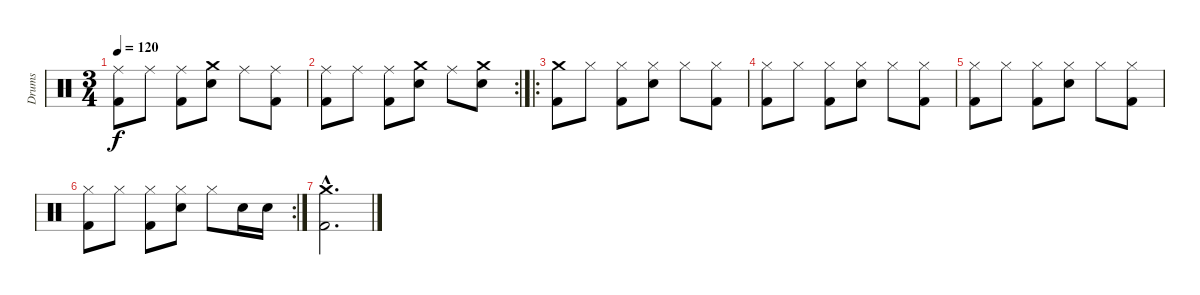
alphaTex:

\track ("Drums" "Drums") {instrument percussion}
\staff {score}
\articulation defaults
\ts (3 4)
\tempo 120
\clef neutral
\ks c
("Ride (middle)" "Kick (hit) 2").8{dy f} "Ride (middle)".8 ("Ride (middle)" "Kick (hit) 2").8 ("Crash medium (hit)" "Snare (hit) 2").8 "Ride (middle)".8 ("Ride (middle)" "Kick (hit) 2").8 |
\rc 2
("Ride (middle)" "Kick (hit) 2").8 "Ride (middle)".8 ("Ride (middle)" "Kick (hit) 2").8 ("Crash medium (hit)" "Snare (hit) 2").8 "Ride (middle)".8 ("Crash medium (hit)" "Snare (hit) 2").8 |
\ro
("Crash medium (hit)" "Kick (hit) 2").8 "Hi-Hat (closed)".8 ("Hi-Hat (closed)" "Kick (hit) 2").8 ("Hi-Hat (closed)" "Snare (hit) 2").8 "Hi-Hat (closed)".8 ("Hi-Hat (closed)" "Kick (hit) 2").8 |
("Hi-Hat (closed)" "Kick (hit) 2").8 "Hi-Hat (closed)".8 ("Hi-Hat (closed)" "Kick (hit) 2").8 ("Hi-Hat (closed)" "Snare (hit) 2").8 "Hi-Hat (closed)".8 ("Hi-Hat (closed)" "Kick (hit) 2").8 |
("Hi-Hat (closed)" "Kick (hit) 2").8 "Hi-Hat (closed)".8 ("Hi-Hat (closed)" "Kick (hit) 2").8 ("Hi-Hat (closed)" "Snare (hit) 2").8 "Hi-Hat (closed)".8 ("Hi-Hat (closed)" "Kick (hit) 2").8 |
\rc 2
("Hi-Hat (closed)" "Kick (hit) 2").8 "Hi-Hat (closed)".8 ("Hi-Hat (closed)" "Kick (hit) 2").8 ("Hi-Hat (closed)" "Snare (hit) 2").8 "Hi-Hat (closed)".8 "Snare (hit) 2".16 "Snare (hit) 2".16 |
("Crash medium (hit)"{hac} "Kick (hit) 2"{hac}).2{d}
